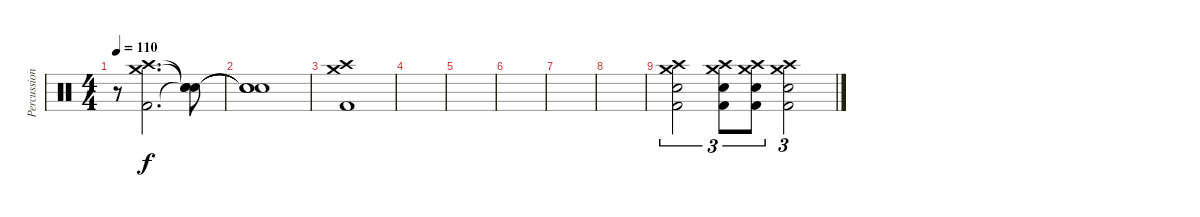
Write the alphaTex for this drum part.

\track ("Percussions" "Percussion") {instrument percussion}
\staff {score}
\articulation defaults
\ts (4 4)
\tempo 110
\clef neutral
\ks c
r.8{dy f} ("Crash medium (hit)" "Crash high (hit)" "Kick (hit) 2").2{d} ("Snare (hit)"{t} "Snare (hit)"{t} "Snare (hit)"{t}).8 |
("Snare (hit)"{t} "Snare (hit)"{t} "Snare (hit)"{t}).1 |
("Crash medium (hit)" "Crash high (hit)" "Kick (hit) 2").1 |
|
|
|
|
|
("Electric Snare (hit)" "Crash medium (hit)" "Crash high (hit)" "Kick (hit) 2").2{tu (3 2)} ("Electric Snare (hit)" "Crash medium (hit)" "Crash high (hit)" "Kick (hit) 2").8{tu (3 2)} ("Electric Snare (hit)" "Crash medium (hit)" "Crash high (hit)" "Kick (hit) 2").8{tu (3 2)} ("Electric Snare (hit)" "Crash medium (hit)" "Crash high (hit)" "Kick (hit) 2").2{tu (3 2)}
